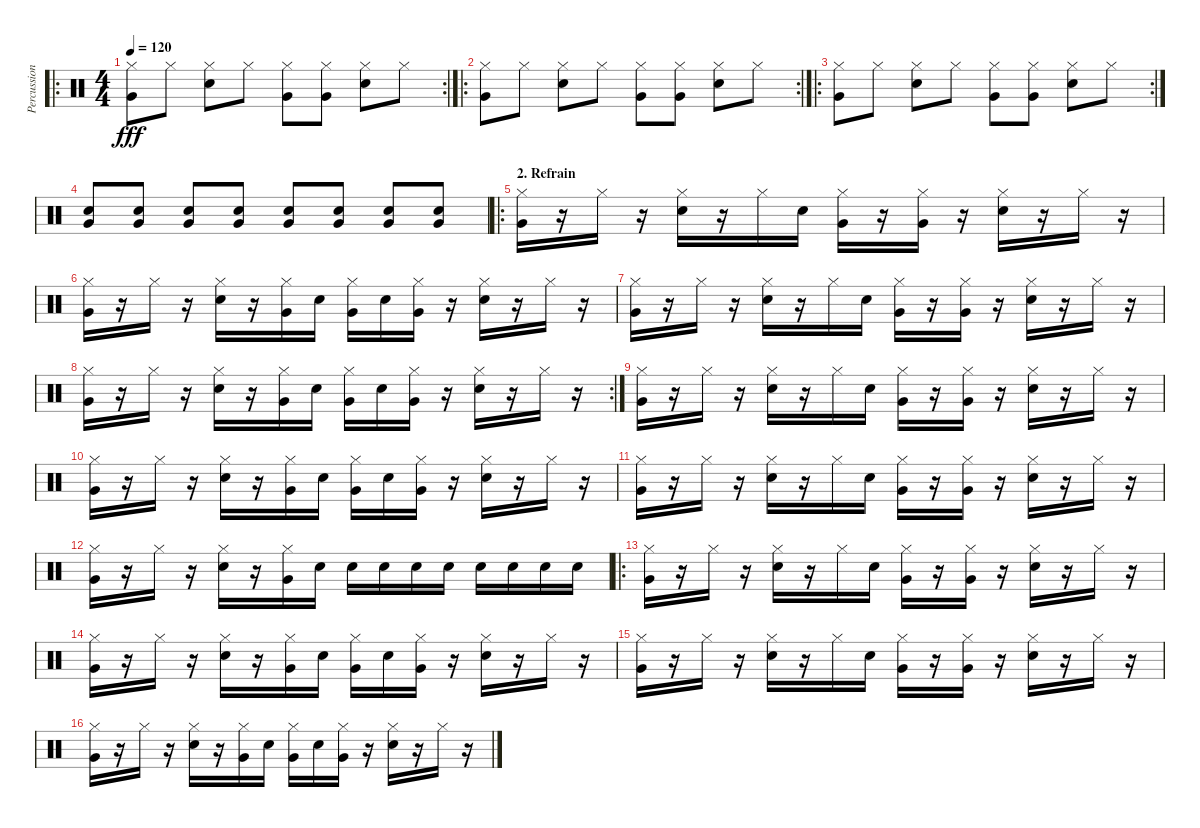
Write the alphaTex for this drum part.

\track ("Percussion" "Percussion") {instrument percussion}
\staff {score}
\articulation defaults
\ro
\rc 2
\ts (4 4)
\tempo 120
\clef neutral
\ks c
("Hi-Hat (closed)" "Very Low Tom (hit)").8{dy fff} "Hi-Hat (closed)".8 ("Hi-Hat (closed)" "Snare (hit) 2").8 "Hi-Hat (closed)".8 ("Hi-Hat (closed)" "Very Low Tom (hit)").8 ("Hi-Hat (closed)" "Very Low Tom (hit)").8 ("Hi-Hat (closed)" "Snare (hit) 2").8 "Hi-Hat (closed)".8 |
\ro
\rc 2
("Hi-Hat (closed)" "Very Low Tom (hit)").8 "Hi-Hat (closed)".8 ("Hi-Hat (closed)" "Snare (hit) 2").8 "Hi-Hat (closed)".8 ("Hi-Hat (closed)" "Very Low Tom (hit)").8 ("Hi-Hat (closed)" "Very Low Tom (hit)").8 ("Hi-Hat (closed)" "Snare (hit) 2").8 "Hi-Hat (closed)".8 |
\ro
\rc 2
("Hi-Hat (closed)" "Very Low Tom (hit)").8 "Hi-Hat (closed)".8 ("Hi-Hat (closed)" "Snare (hit) 2").8 "Hi-Hat (closed)".8 ("Hi-Hat (closed)" "Very Low Tom (hit)").8 ("Hi-Hat (closed)" "Very Low Tom (hit)").8 ("Hi-Hat (closed)" "Snare (hit) 2").8 "Hi-Hat (closed)".8 |
("Very Low Tom (hit)" "Snare (hit) 2").8 ("Very Low Tom (hit)" "Snare (hit) 2").8 ("Very Low Tom (hit)" "Snare (hit) 2").8 ("Very Low Tom (hit)" "Snare (hit) 2").8 ("Very Low Tom (hit)" "Snare (hit) 2").8 ("Very Low Tom (hit)" "Snare (hit) 2").8 ("Very Low Tom (hit)" "Snare (hit) 2").8 ("Very Low Tom (hit)" "Snare (hit) 2").8 |
\ro
\section ("" "2. Refrain")
("Hi-Hat (closed)" "Very Low Tom (hit)").16 r.16 "Hi-Hat (closed)".16 r.16 ("Hi-Hat (closed)" "Snare (hit) 2").16 r.16 "Hi-Hat (closed)".16 "Snare (hit) 2".16 ("Hi-Hat (closed)" "Very Low Tom (hit)").16 r.16 ("Hi-Hat (closed)" "Very Low Tom (hit)").16 r.16 ("Hi-Hat (closed)" "Snare (hit) 2").16 r.16 "Hi-Hat (closed)".16 r.16 |
("Hi-Hat (closed)" "Very Low Tom (hit)").16 r.16 "Hi-Hat (closed)".16 r.16 ("Hi-Hat (closed)" "Snare (hit) 2").16 r.16 ("Hi-Hat (closed)" "Very Low Tom (hit)").16 "Snare (hit) 2".16 ("Hi-Hat (closed)" "Very Low Tom (hit)").16 "Snare (hit) 2".16 ("Hi-Hat (closed)" "Very Low Tom (hit)").16 r.16 ("Hi-Hat (closed)" "Snare (hit) 2").16 r.16 "Hi-Hat (closed)".16 r.16 |
("Hi-Hat (closed)" "Very Low Tom (hit)").16 r.16 "Hi-Hat (closed)".16 r.16 ("Hi-Hat (closed)" "Snare (hit) 2").16 r.16 "Hi-Hat (closed)".16 "Snare (hit) 2".16 ("Hi-Hat (closed)" "Very Low Tom (hit)").16 r.16 ("Hi-Hat (closed)" "Very Low Tom (hit)").16 r.16 ("Hi-Hat (closed)" "Snare (hit) 2").16 r.16 "Hi-Hat (closed)".16 r.16 |
\rc 2
("Hi-Hat (closed)" "Very Low Tom (hit)").16 r.16 "Hi-Hat (closed)".16 r.16 ("Hi-Hat (closed)" "Snare (hit) 2").16 r.16 ("Hi-Hat (closed)" "Very Low Tom (hit)").16 "Snare (hit) 2".16 ("Hi-Hat (closed)" "Very Low Tom (hit)").16 "Snare (hit) 2".16 ("Hi-Hat (closed)" "Very Low Tom (hit)").16 r.16 ("Hi-Hat (closed)" "Snare (hit) 2").16 r.16 "Hi-Hat (closed)".16 r.16 |
("Hi-Hat (closed)" "Very Low Tom (hit)").16 r.16 "Hi-Hat (closed)".16 r.16 ("Hi-Hat (closed)" "Snare (hit) 2").16 r.16 "Hi-Hat (closed)".16 "Snare (hit) 2".16 ("Hi-Hat (closed)" "Very Low Tom (hit)").16 r.16 ("Hi-Hat (closed)" "Very Low Tom (hit)").16 r.16 ("Hi-Hat (closed)" "Snare (hit) 2").16 r.16 "Hi-Hat (closed)".16 r.16 |
("Hi-Hat (closed)" "Very Low Tom (hit)").16 r.16 "Hi-Hat (closed)".16 r.16 ("Hi-Hat (closed)" "Snare (hit) 2").16 r.16 ("Hi-Hat (closed)" "Very Low Tom (hit)").16 "Snare (hit) 2".16 ("Hi-Hat (closed)" "Very Low Tom (hit)").16 "Snare (hit) 2".16 ("Hi-Hat (closed)" "Very Low Tom (hit)").16 r.16 ("Hi-Hat (closed)" "Snare (hit) 2").16 r.16 "Hi-Hat (closed)".16 r.16 |
("Hi-Hat (closed)" "Very Low Tom (hit)").16 r.16 "Hi-Hat (closed)".16 r.16 ("Hi-Hat (closed)" "Snare (hit) 2").16 r.16 "Hi-Hat (closed)".16 "Snare (hit) 2".16 ("Hi-Hat (closed)" "Very Low Tom (hit)").16 r.16 ("Hi-Hat (closed)" "Very Low Tom (hit)").16 r.16 ("Hi-Hat (closed)" "Snare (hit) 2").16 r.16 "Hi-Hat (closed)".16 r.16 |
("Hi-Hat (closed)" "Very Low Tom (hit)").16 r.16 "Hi-Hat (closed)".16 r.16 ("Hi-Hat (closed)" "Snare (hit) 2").16 r.16 ("Hi-Hat (closed)" "Very Low Tom (hit)").16 "Snare (hit) 2".16 "Snare (hit) 2".16 "Snare (hit) 2".16 "Snare (hit) 2".16 "Snare (hit) 2".16 "Snare (hit) 2".16 "Snare (hit) 2".16 "Snare (hit) 2".16 "Snare (hit) 2".16 |
\ro
("Hi-Hat (closed)" "Very Low Tom (hit)").16 r.16 "Hi-Hat (closed)".16 r.16 ("Hi-Hat (closed)" "Snare (hit) 2").16 r.16 "Hi-Hat (closed)".16 "Snare (hit) 2".16 ("Hi-Hat (closed)" "Very Low Tom (hit)").16 r.16 ("Hi-Hat (closed)" "Very Low Tom (hit)").16 r.16 ("Hi-Hat (closed)" "Snare (hit) 2").16 r.16 "Hi-Hat (closed)".16 r.16 |
("Hi-Hat (closed)" "Very Low Tom (hit)").16 r.16 "Hi-Hat (closed)".16 r.16 ("Hi-Hat (closed)" "Snare (hit) 2").16 r.16 ("Hi-Hat (closed)" "Very Low Tom (hit)").16 "Snare (hit) 2".16 ("Hi-Hat (closed)" "Very Low Tom (hit)").16 "Snare (hit) 2".16 ("Hi-Hat (closed)" "Very Low Tom (hit)").16 r.16 ("Hi-Hat (closed)" "Snare (hit) 2").16 r.16 "Hi-Hat (closed)".16 r.16 |
("Hi-Hat (closed)" "Very Low Tom (hit)").16 r.16 "Hi-Hat (closed)".16 r.16 ("Hi-Hat (closed)" "Snare (hit) 2").16 r.16 "Hi-Hat (closed)".16 "Snare (hit) 2".16 ("Hi-Hat (closed)" "Very Low Tom (hit)").16 r.16 ("Hi-Hat (closed)" "Very Low Tom (hit)").16 r.16 ("Hi-Hat (closed)" "Snare (hit) 2").16 r.16 "Hi-Hat (closed)".16 r.16 |
("Hi-Hat (closed)" "Very Low Tom (hit)").16 r.16 "Hi-Hat (closed)".16 r.16 ("Hi-Hat (closed)" "Snare (hit) 2").16 r.16 ("Hi-Hat (closed)" "Very Low Tom (hit)").16 "Snare (hit) 2".16 ("Hi-Hat (closed)" "Very Low Tom (hit)").16 "Snare (hit) 2".16 ("Hi-Hat (closed)" "Very Low Tom (hit)").16 r.16 ("Hi-Hat (closed)" "Snare (hit) 2").16 r.16 "Hi-Hat (closed)".16 r.16
